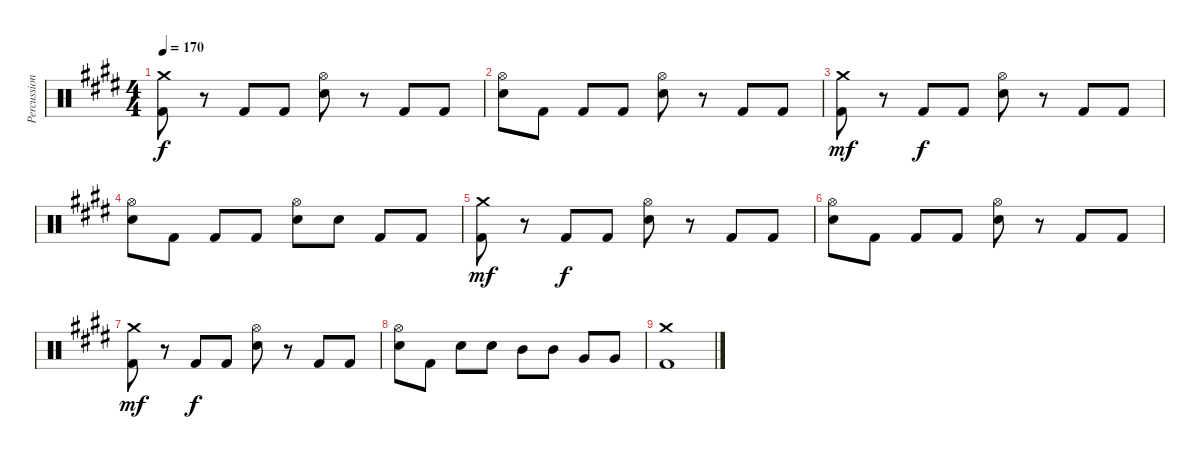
\track ("Percussion" "Percussion") {instrument percussion}
\staff {score}
\articulation defaults
\ts (4 4)
\tempo 170
\clef neutral
\ks c#minor
("Crash medium (hit)" "Kick (hit) 2").8{dy f} r.8 "Kick (hit) 2".8 "Kick (hit) 2".8 ("Hi-Hat (open)" "Snare (hit) 2").8 r.8 "Kick (hit) 2".8 "Kick (hit) 2".8 |
("Hi-Hat (open)" "Snare (hit) 2").8 "Kick (hit) 2".8 "Kick (hit) 2".8 "Kick (hit) 2".8 ("Hi-Hat (open)" "Snare (hit) 2").8 r.8 "Kick (hit) 2".8 "Kick (hit) 2".8 |
("Crash medium (hit)" "Kick (hit) 2").8{dy mf} r.8 "Kick (hit) 2".8{dy f} "Kick (hit) 2".8 ("Hi-Hat (open)" "Snare (hit) 2").8 r.8 "Kick (hit) 2".8 "Kick (hit) 2".8 |
("Hi-Hat (open)" "Snare (hit) 2").8 "Kick (hit) 2".8 "Kick (hit) 2".8 "Kick (hit) 2".8 ("Hi-Hat (open)" "Snare (hit) 2").8 "Snare (hit) 2".8 "Kick (hit) 2".8 "Kick (hit) 2".8 |
("Crash medium (hit)" "Kick (hit) 2").8{dy mf} r.8 "Kick (hit) 2".8{dy f} "Kick (hit) 2".8 ("Hi-Hat (open)" "Snare (hit) 2").8 r.8 "Kick (hit) 2".8 "Kick (hit) 2".8 |
("Hi-Hat (open)" "Snare (hit) 2").8 "Kick (hit) 2".8 "Kick (hit) 2".8 "Kick (hit) 2".8 ("Hi-Hat (open)" "Snare (hit) 2").8 r.8 "Kick (hit) 2".8 "Kick (hit) 2".8 |
("Crash medium (hit)" "Kick (hit) 2").8{dy mf} r.8 "Kick (hit) 2".8{dy f} "Kick (hit) 2".8 ("Hi-Hat (open)" "Snare (hit) 2").8 r.8 "Kick (hit) 2".8 "Kick (hit) 2".8 |
("Hi-Hat (open)" "Snare (hit) 2").8 "Kick (hit) 2".8 "Snare (hit) 2".8 "Snare (hit) 2".8 "Mid Tom (hit)".8 "Mid Tom (hit)".8 "Very Low Tom (hit)".8 "Very Low Tom (hit)".8 |
("Crash medium (hit)" "Kick (hit) 2").1
